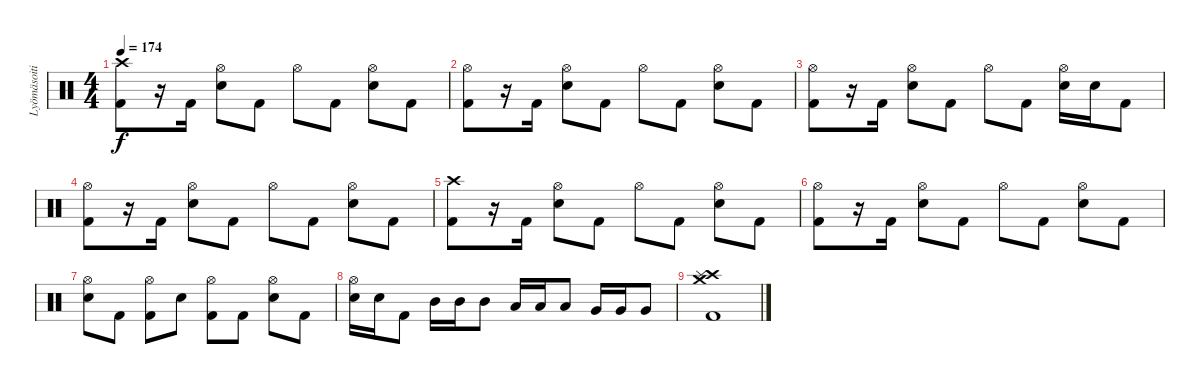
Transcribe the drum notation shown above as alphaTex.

\track ("Lyömäsoitin" "Lyömäsoiti") {instrument percussion}
\staff {score}
\articulation defaults
\ts (4 4)
\tempo 174
\clef neutral
\ks c
("Crash high (hit)" "Kick (hit) 2").8{dy f} r.16 "Kick (hit) 2".16 ("Hi-Hat (open)" "Electric Snare (hit)").8 "Kick (hit) 2".8 "Hi-Hat (open)".8 "Kick (hit) 2".8 ("Hi-Hat (open)" "Electric Snare (hit)").8 "Kick (hit) 2".8 |
("Hi-Hat (open)" "Kick (hit) 2").8 r.16 "Kick (hit) 2".16 ("Hi-Hat (open)" "Electric Snare (hit)").8 "Kick (hit) 2".8 "Hi-Hat (open)".8 "Kick (hit) 2".8 ("Hi-Hat (open)" "Electric Snare (hit)").8 "Kick (hit) 2".8 |
("Hi-Hat (open)" "Kick (hit) 2").8 r.16 "Kick (hit) 2".16 ("Hi-Hat (open)" "Electric Snare (hit)").8 "Kick (hit) 2".8 "Hi-Hat (open)".8 "Kick (hit) 2".8 ("Hi-Hat (open)" "Electric Snare (hit)").16 "Electric Snare (hit)".16 "Kick (hit) 2".8 |
("Hi-Hat (open)" "Kick (hit) 2").8 r.16 "Kick (hit) 2".16 ("Hi-Hat (open)" "Electric Snare (hit)").8 "Kick (hit) 2".8 "Hi-Hat (open)".8 "Kick (hit) 2".8 ("Hi-Hat (open)" "Electric Snare (hit)").8 "Kick (hit) 2".8 |
("Crash high (hit)" "Kick (hit) 2").8 r.16 "Kick (hit) 2".16 ("Hi-Hat (open)" "Electric Snare (hit)").8 "Kick (hit) 2".8 "Hi-Hat (open)".8 "Kick (hit) 2".8 ("Hi-Hat (open)" "Electric Snare (hit)").8 "Kick (hit) 2".8 |
("Hi-Hat (open)" "Kick (hit) 2").8 r.16 "Kick (hit) 2".16 ("Hi-Hat (open)" "Electric Snare (hit)").8 "Kick (hit) 2".8 "Hi-Hat (open)".8 "Kick (hit) 2".8 ("Hi-Hat (open)" "Electric Snare (hit)").8 "Kick (hit) 2".8 |
("Hi-Hat (open)" "Electric Snare (hit)").8 "Kick (hit) 2".8 ("Hi-Hat (open)" "Kick (hit) 2").8 "Electric Snare (hit)".8 ("Hi-Hat (open)" "Kick (hit) 2").8 "Kick (hit) 2".8 ("Hi-Hat (open)" "Electric Snare (hit)").8 "Kick (hit) 2".8 |
("Hi-Hat (open)" "Electric Snare (hit)").16 "Electric Snare (hit)".16 "Kick (hit) 2".8 "Mid Tom (hit)".16 "Mid Tom (hit)".16 "Mid Tom (hit)".8 "Low Tom (hit)".16 "Low Tom (hit)".16 "Low Tom (hit)".8 "Very Low Tom (hit)".16 "Very Low Tom (hit)".16 "Very Low Tom (hit)".8 |
("Crash medium (hit)" "Crash high (hit)" "Splash (hit)" "Kick (hit) 2").1
